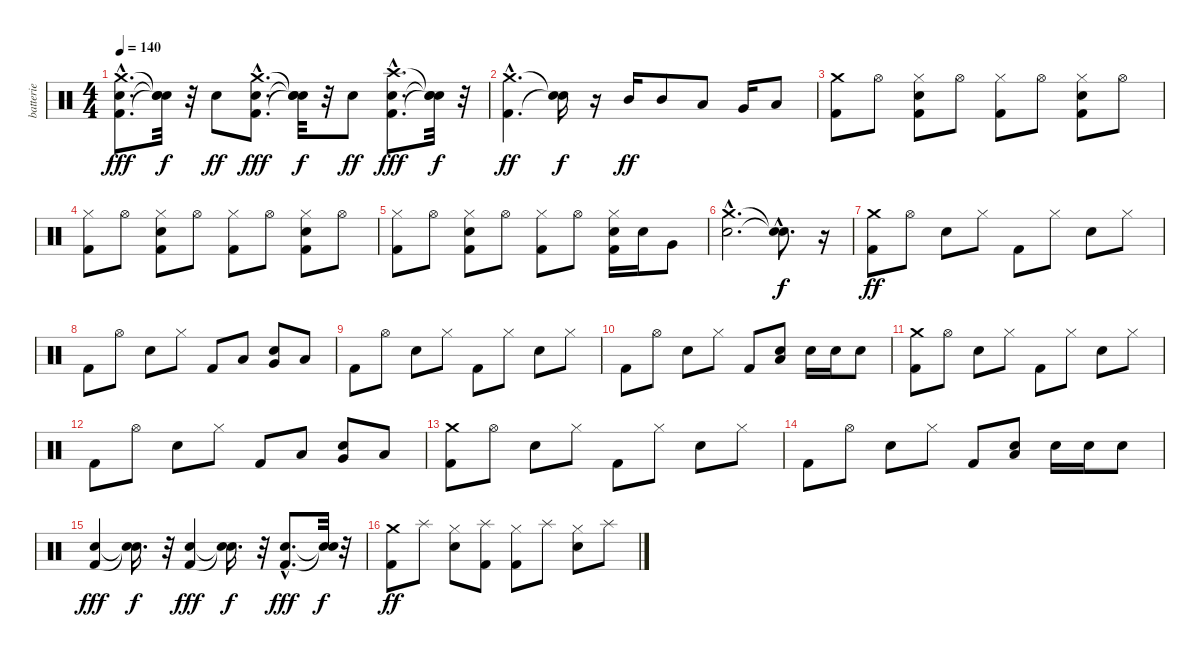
\track ("batterie" "batterie") {instrument percussion}
\staff {score}
\articulation defaults
\ts (4 4)
\tempo 140
\clef neutral
\ks c
("Kick (hit) 2"{hac} "Electric Snare (hit)"{hac} "Crash medium (hit)"{hac}).8{d dy fff} ("Snare (hit)"{t} "Snare (hit)"{t} "Snare (hit)"{t}).32{dy f} r.32 "Electric Snare (hit)".8{dy ff} ("Kick (hit) 2"{hac} "Electric Snare (hit)"{hac} "Crash medium (hit)"{hac}).8{d dy fff} ("Snare (hit)"{t} "Snare (hit)"{t} "Snare (hit)"{t}).32{dy f} r.32 "Electric Snare (hit)".8{dy ff} ("Kick (hit) 2"{hac} "Electric Snare (hit)"{hac} "Crash high (hit)"{hac}).8{d dy fff} ("Snare (hit)"{t} "Snare (hit)"{t} "Snare (hit)"{t}).32{dy f} r.32 |
("Kick (hit) 2"{hac} "Crash medium (hit)"{hac}).4{d dy ff} ("Snare (hit)"{t} "Snare (hit)"{t}).16{dy f} r.16 "Mid Tom (hit)".16{dy ff} "Mid Tom (hit)".8 "Low Tom (hit)".8 "Very Low Tom (hit)".16 "Low Floor Tom (hit)".8 |
("Kick (hit) 2" "Crash medium (hit)").8 "Hi-Hat (open)".8 ("Kick (hit) 2" "Electric Snare (hit)" "Hi-Hat (closed)").8 "Hi-Hat (open)".8 ("Kick (hit) 2" "Hi-Hat (closed)").8 "Hi-Hat (open)".8 ("Kick (hit) 2" "Electric Snare (hit)" "Hi-Hat (closed)").8 "Hi-Hat (open)".8 |
("Kick (hit) 2" "Hi-Hat (closed)").8 "Hi-Hat (open)".8 ("Kick (hit) 2" "Electric Snare (hit)" "Hi-Hat (closed)").8 "Hi-Hat (open)".8 ("Kick (hit) 2" "Hi-Hat (closed)").8 "Hi-Hat (open)".8 ("Kick (hit) 2" "Electric Snare (hit)" "Hi-Hat (closed)").8 "Hi-Hat (open)".8 |
("Kick (hit) 2" "Hi-Hat (closed)").8 "Hi-Hat (open)".8 ("Kick (hit) 2" "Electric Snare (hit)" "Hi-Hat (closed)").8 "Hi-Hat (open)".8 ("Kick (hit) 2" "Hi-Hat (closed)").8 "Hi-Hat (open)".8 ("Kick (hit) 2" "Electric Snare (hit)" "Hi-Hat (closed)").16 "Electric Snare (hit)".16 "Very Low Tom (hit)".8 |
("Electric Snare (hit)"{hac} "Crash medium (hit)"{hac}).2{d} ("Snare (hit)"{hac t} "Snare (hit)"{hac t}).8{d dy f} r.16 |
("Kick (hit) 2" "Crash medium (hit)").8{dy ff} "Hi-Hat (open)".8 "Electric Snare (hit)".8 "Hi-Hat (closed)".8 "Kick (hit) 2".8 "Hi-Hat (closed)".8 "Electric Snare (hit)".8 "Hi-Hat (closed)".8 |
"Kick (hit) 2".8 "Hi-Hat (open)".8 "Electric Snare (hit)".8 "Hi-Hat (closed)".8 "Kick (hit) 2".8 "Low Tom (hit)".8 ("Electric Snare (hit)" "Very Low Tom (hit)").8 "Low Floor Tom (hit)".8 |
"Kick (hit) 2".8 "Hi-Hat (open)".8 "Electric Snare (hit)".8 "Hi-Hat (closed)".8 "Kick (hit) 2".8 "Hi-Hat (closed)".8 "Electric Snare (hit)".8 "Hi-Hat (closed)".8 |
"Kick (hit) 2".8 "Hi-Hat (open)".8 "Electric Snare (hit)".8 "Hi-Hat (closed)".8 "Kick (hit) 2".8 ("Electric Snare (hit)" "Low Tom (hit)").8 "Electric Snare (hit)".16 "Electric Snare (hit)".16 "Electric Snare (hit)".8 |
("Kick (hit) 2" "Crash medium (hit)").8 "Hi-Hat (open)".8 "Electric Snare (hit)".8 "Hi-Hat (closed)".8 "Kick (hit) 2".8 "Hi-Hat (closed)".8 "Electric Snare (hit)".8 "Hi-Hat (closed)".8 |
"Kick (hit) 2".8 "Hi-Hat (open)".8 "Electric Snare (hit)".8 "Hi-Hat (closed)".8 "Kick (hit) 2".8 "Low Tom (hit)".8 ("Electric Snare (hit)" "Very Low Tom (hit)").8 "Low Floor Tom (hit)".8 |
("Kick (hit) 2" "Crash medium (hit)").8 "Hi-Hat (open)".8 "Electric Snare (hit)".8 "Hi-Hat (closed)".8 "Kick (hit) 2".8 "Hi-Hat (closed)".8 "Electric Snare (hit)".8 "Hi-Hat (closed)".8 |
"Kick (hit) 2".8 "Hi-Hat (open)".8 "Electric Snare (hit)".8 "Hi-Hat (closed)".8 "Kick (hit) 2".8 ("Electric Snare (hit)" "Low Tom (hit)").8 "Electric Snare (hit)".16 "Electric Snare (hit)".16 "Electric Snare (hit)".8 |
("Kick (hit) 2" "Electric Snare (hit)").4{dy fff} ("Snare (hit)"{t} "Snare (hit)"{t}).16{d dy f} r.32 ("Kick (hit) 2" "Electric Snare (hit)").4{dy fff} ("Snare (hit)"{t} "Snare (hit)"{t}).16{d dy f} r.32 ("Kick (hit) 2"{hac} "Electric Snare (hit)"{hac}).8{d dy fff} ("Snare (hit)"{t} "Snare (hit)"{t}).32{dy f} r.32 |
("Kick (hit) 2" "Crash medium (hit)").8{dy ff} "Splash (hit)".8 ("Electric Snare (hit)" "Hi-Hat (closed)").8 ("Kick (hit) 2" "Splash (hit)").8 ("Kick (hit) 2" "Hi-Hat (closed)").8 "Splash (hit)".8 ("Electric Snare (hit)" "Hi-Hat (closed)").8 "Splash (hit)".8
